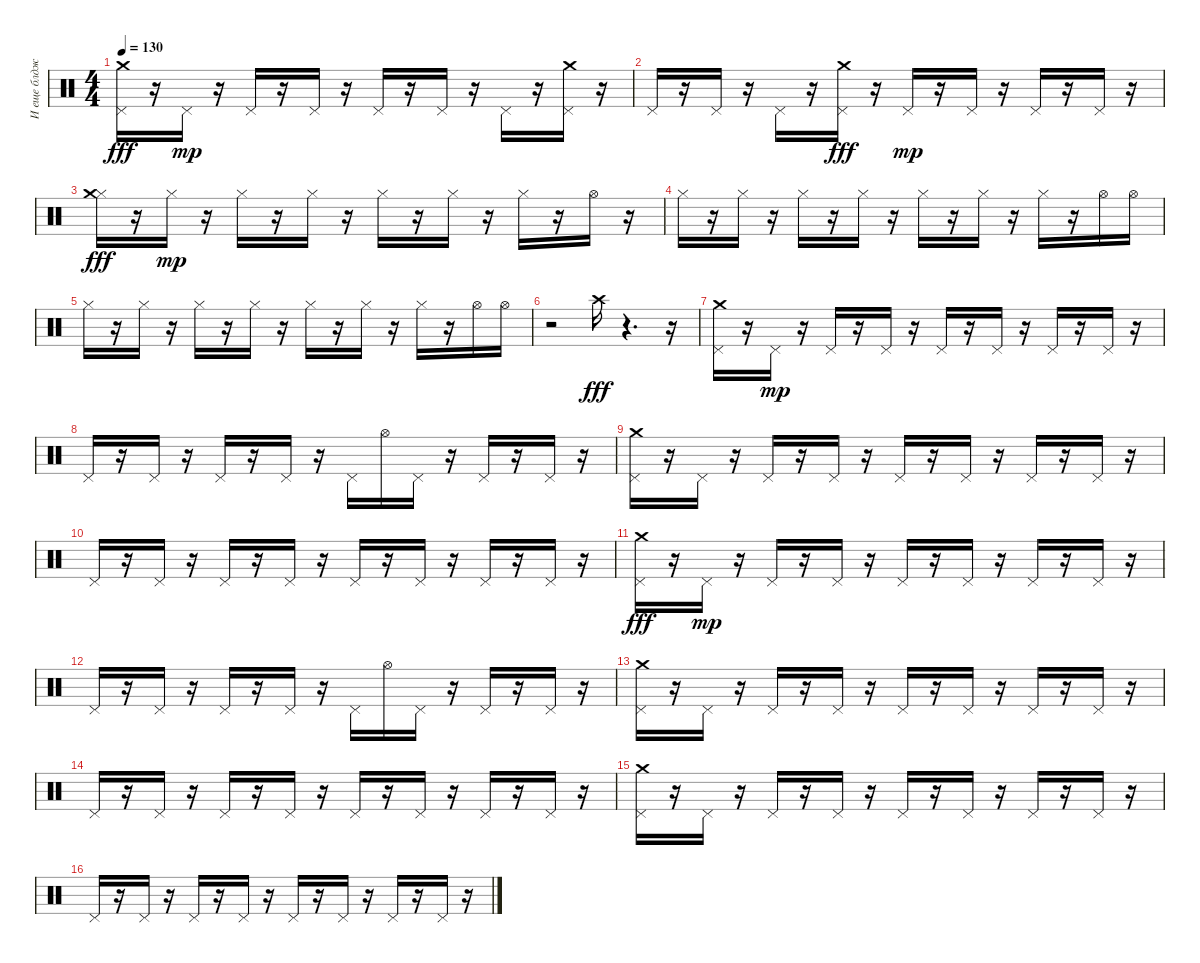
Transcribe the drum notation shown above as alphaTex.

\track ("И еще блджад" "И еще блдж") {instrument percussion}
\staff {score}
\articulation defaults
\ts (4 4)
\tempo 130
\clef neutral
\ks c
("Pedal Hi-Hat (hit)" "Crash medium (hit)").16{dy fff} r.16 "Pedal Hi-Hat (hit)".16{dy mp} r.16 "Pedal Hi-Hat (hit)".16 r.16 "Pedal Hi-Hat (hit)".16 r.16 "Pedal Hi-Hat (hit)".16 r.16 "Pedal Hi-Hat (hit)".16 r.16 "Pedal Hi-Hat (hit)".16 r.16 ("Crash medium (hit)" "Pedal Hi-Hat (hit)").16 r.16 |
"Pedal Hi-Hat (hit)".16 r.16 "Pedal Hi-Hat (hit)".16 r.16 "Pedal Hi-Hat (hit)".16 r.16 ("Pedal Hi-Hat (hit)" "Crash medium (hit)").16{dy fff} r.16 "Pedal Hi-Hat (hit)".16{dy mp} r.16 "Pedal Hi-Hat (hit)".16 r.16 "Pedal Hi-Hat (hit)".16 r.16 "Pedal Hi-Hat (hit)".16 r.16 |
("Hi-Hat (closed)" "Crash medium (hit)").16{dy fff} r.16 "Hi-Hat (closed)".16{dy mp} r.16 "Hi-Hat (closed)".16 r.16 "Hi-Hat (closed)".16 r.16 "Hi-Hat (closed)".16 r.16 "Hi-Hat (closed)".16 r.16 "Hi-Hat (closed)".16 r.16 "Hi-Hat (open)".16 r.16 |
"Hi-Hat (closed)".16 r.16 "Hi-Hat (closed)".16 r.16 "Hi-Hat (closed)".16 r.16 "Hi-Hat (closed)".16 r.16 "Hi-Hat (closed)".16 r.16 "Hi-Hat (closed)".16 r.16 "Hi-Hat (closed)".16 r.16 "Hi-Hat (open)".16 "Hi-Hat (open)".16 |
"Hi-Hat (closed)".16 r.16 "Hi-Hat (closed)".16 r.16 "Hi-Hat (closed)".16 r.16 "Hi-Hat (closed)".16 r.16 "Hi-Hat (closed)".16 r.16 "Hi-Hat (closed)".16 r.16 "Hi-Hat (closed)".16 r.16 "Hi-Hat (open)".16 "Hi-Hat (open)".16 |
r.2 "Crash high (hit)".16{dy fff} r.4{d} r.16 |
("Pedal Hi-Hat (hit)" "Crash medium (hit)").16 r.16 "Pedal Hi-Hat (hit)".16{dy mp} r.16 "Pedal Hi-Hat (hit)".16 r.16 "Pedal Hi-Hat (hit)".16 r.16 "Pedal Hi-Hat (hit)".16 r.16 "Pedal Hi-Hat (hit)".16 r.16 "Pedal Hi-Hat (hit)".16 r.16 "Pedal Hi-Hat (hit)".16 r.16 |
"Pedal Hi-Hat (hit)".16 r.16 "Pedal Hi-Hat (hit)".16 r.16 "Pedal Hi-Hat (hit)".16 r.16 "Pedal Hi-Hat (hit)".16 r.16 "Pedal Hi-Hat (hit)".16 "Hi-Hat (open)".16 "Pedal Hi-Hat (hit)".16 r.16 "Pedal Hi-Hat (hit)".16 r.16 "Pedal Hi-Hat (hit)".16 r.16 |
("Crash medium (hit)" "Pedal Hi-Hat (hit)").16 r.16 "Pedal Hi-Hat (hit)".16 r.16 "Pedal Hi-Hat (hit)".16 r.16 "Pedal Hi-Hat (hit)".16 r.16 "Pedal Hi-Hat (hit)".16 r.16 "Pedal Hi-Hat (hit)".16 r.16 "Pedal Hi-Hat (hit)".16 r.16 "Pedal Hi-Hat (hit)".16 r.16 |
"Pedal Hi-Hat (hit)".16 r.16 "Pedal Hi-Hat (hit)".16 r.16 "Pedal Hi-Hat (hit)".16 r.16 "Pedal Hi-Hat (hit)".16 r.16 "Pedal Hi-Hat (hit)".16 r.16 "Pedal Hi-Hat (hit)".16 r.16 "Pedal Hi-Hat (hit)".16 r.16 "Pedal Hi-Hat (hit)".16 r.16 |
("Pedal Hi-Hat (hit)" "Crash medium (hit)").16{dy fff} r.16 "Pedal Hi-Hat (hit)".16{dy mp} r.16 "Pedal Hi-Hat (hit)".16 r.16 "Pedal Hi-Hat (hit)".16 r.16 "Pedal Hi-Hat (hit)".16 r.16 "Pedal Hi-Hat (hit)".16 r.16 "Pedal Hi-Hat (hit)".16 r.16 "Pedal Hi-Hat (hit)".16 r.16 |
"Pedal Hi-Hat (hit)".16 r.16 "Pedal Hi-Hat (hit)".16 r.16 "Pedal Hi-Hat (hit)".16 r.16 "Pedal Hi-Hat (hit)".16 r.16 "Pedal Hi-Hat (hit)".16 "Hi-Hat (open)".16 "Pedal Hi-Hat (hit)".16 r.16 "Pedal Hi-Hat (hit)".16 r.16 "Pedal Hi-Hat (hit)".16 r.16 |
("Crash medium (hit)" "Pedal Hi-Hat (hit)").16 r.16 "Pedal Hi-Hat (hit)".16 r.16 "Pedal Hi-Hat (hit)".16 r.16 "Pedal Hi-Hat (hit)".16 r.16 "Pedal Hi-Hat (hit)".16 r.16 "Pedal Hi-Hat (hit)".16 r.16 "Pedal Hi-Hat (hit)".16 r.16 "Pedal Hi-Hat (hit)".16 r.16 |
"Pedal Hi-Hat (hit)".16 r.16 "Pedal Hi-Hat (hit)".16 r.16 "Pedal Hi-Hat (hit)".16 r.16 "Pedal Hi-Hat (hit)".16 r.16 "Pedal Hi-Hat (hit)".16 r.16 "Pedal Hi-Hat (hit)".16 r.16 "Pedal Hi-Hat (hit)".16 r.16 "Pedal Hi-Hat (hit)".16 r.16 |
("Crash medium (hit)" "Pedal Hi-Hat (hit)").16 r.16 "Pedal Hi-Hat (hit)".16 r.16 "Pedal Hi-Hat (hit)".16 r.16 "Pedal Hi-Hat (hit)".16 r.16 "Pedal Hi-Hat (hit)".16 r.16 "Pedal Hi-Hat (hit)".16 r.16 "Pedal Hi-Hat (hit)".16 r.16 "Pedal Hi-Hat (hit)".16 r.16 |
"Pedal Hi-Hat (hit)".16 r.16 "Pedal Hi-Hat (hit)".16 r.16 "Pedal Hi-Hat (hit)".16 r.16 "Pedal Hi-Hat (hit)".16 r.16 "Pedal Hi-Hat (hit)".16 r.16 "Pedal Hi-Hat (hit)".16 r.16 "Pedal Hi-Hat (hit)".16 r.16 "Pedal Hi-Hat (hit)".16 r.16
